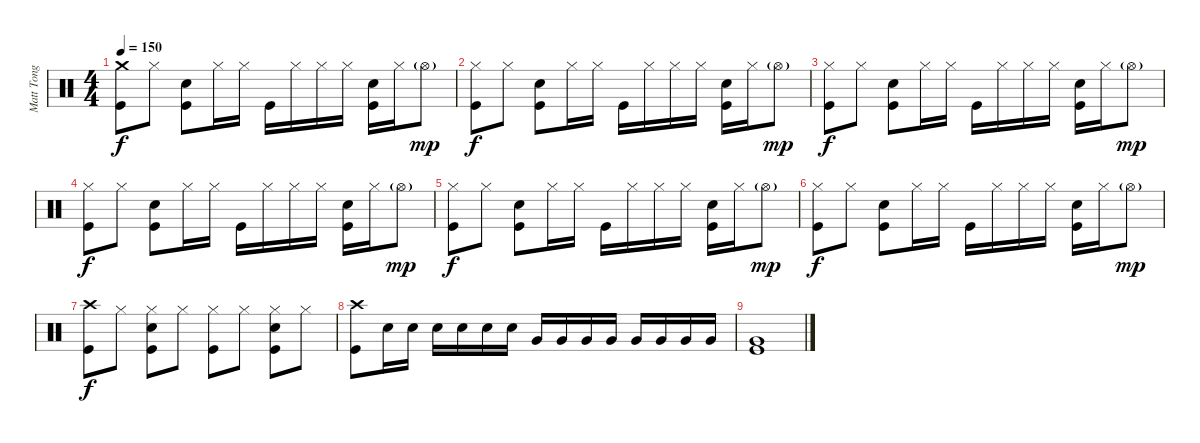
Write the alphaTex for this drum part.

\track ("Matt Tong (Drums)" "Matt Tong ") {instrument percussion}
\staff {score}
\articulation defaults
\ts (4 4)
\tempo 150
\clef neutral
\ks c
("Crash medium (hit)" "Kick (hit)").8{dy f} "Hi-Hat (closed)".8 ("Electric Snare (hit)" "Kick (hit)").8 "Hi-Hat (closed)".16 "Hi-Hat (closed)".16 "Kick (hit)".16 "Hi-Hat (closed)".16 "Hi-Hat (closed)".16 "Hi-Hat (closed)".16 ("Electric Snare (hit)" "Kick (hit)").16 "Hi-Hat (closed)".16 "Hi-Hat (open)"{g}.8{dy mp} |
("Hi-Hat (closed)" "Kick (hit)").8{dy f} "Hi-Hat (closed)".8 ("Electric Snare (hit)" "Kick (hit)").8 "Hi-Hat (closed)".16 "Hi-Hat (closed)".16 "Kick (hit)".16 "Hi-Hat (closed)".16 "Hi-Hat (closed)".16 "Hi-Hat (closed)".16 ("Electric Snare (hit)" "Kick (hit)").16 "Hi-Hat (closed)".16 "Hi-Hat (open)"{g}.8{dy mp} |
("Hi-Hat (closed)" "Kick (hit)").8{dy f} "Hi-Hat (closed)".8 ("Electric Snare (hit)" "Kick (hit)").8 "Hi-Hat (closed)".16 "Hi-Hat (closed)".16 "Kick (hit)".16 "Hi-Hat (closed)".16 "Hi-Hat (closed)".16 "Hi-Hat (closed)".16 ("Electric Snare (hit)" "Kick (hit)").16 "Hi-Hat (closed)".16 "Hi-Hat (open)"{g}.8{dy mp} |
("Hi-Hat (closed)" "Kick (hit)").8{dy f} "Hi-Hat (closed)".8 ("Electric Snare (hit)" "Kick (hit)").8 "Hi-Hat (closed)".16 "Hi-Hat (closed)".16 "Kick (hit)".16 "Hi-Hat (closed)".16 "Hi-Hat (closed)".16 "Hi-Hat (closed)".16 ("Electric Snare (hit)" "Kick (hit)").16 "Hi-Hat (closed)".16 "Hi-Hat (open)"{g}.8{dy mp} |
("Hi-Hat (closed)" "Kick (hit)").8{dy f} "Hi-Hat (closed)".8 ("Electric Snare (hit)" "Kick (hit)").8 "Hi-Hat (closed)".16 "Hi-Hat (closed)".16 "Kick (hit)".16 "Hi-Hat (closed)".16 "Hi-Hat (closed)".16 "Hi-Hat (closed)".16 ("Electric Snare (hit)" "Kick (hit)").16 "Hi-Hat (closed)".16 "Hi-Hat (open)"{g}.8{dy mp} |
("Hi-Hat (closed)" "Kick (hit)").8{dy f} "Hi-Hat (closed)".8 ("Electric Snare (hit)" "Kick (hit)").8 "Hi-Hat (closed)".16 "Hi-Hat (closed)".16 "Kick (hit)".16 "Hi-Hat (closed)".16 "Hi-Hat (closed)".16 "Hi-Hat (closed)".16 ("Electric Snare (hit)" "Kick (hit)").16 "Hi-Hat (closed)".16 "Hi-Hat (open)"{g}.8{dy mp} |
("Crash high (hit)" "Kick (hit)").8{dy f} "Hi-Hat (closed)".8 ("Hi-Hat (closed)" "Electric Snare (hit)" "Kick (hit)").8 "Hi-Hat (closed)".8 ("Hi-Hat (closed)" "Kick (hit)").8 "Hi-Hat (closed)".8 ("Hi-Hat (closed)" "Electric Snare (hit)" "Kick (hit)").8 "Hi-Hat (closed)".8 |
("Crash high (hit)" "Kick (hit)").8 "Electric Snare (hit)".16 "Electric Snare (hit)".16 "Electric Snare (hit)".16 "Electric Snare (hit)".16 "Electric Snare (hit)".16 "Electric Snare (hit)".16 "Very Low Tom (hit)".16 "Very Low Tom (hit)".16 "Very Low Tom (hit)".16 "Very Low Tom (hit)".16 "Very Low Tom (hit)".16 "Very Low Tom (hit)".16 "Very Low Tom (hit)".16 "Very Low Tom (hit)".16 |
("Very Low Tom (hit)" "Kick (hit)").1
